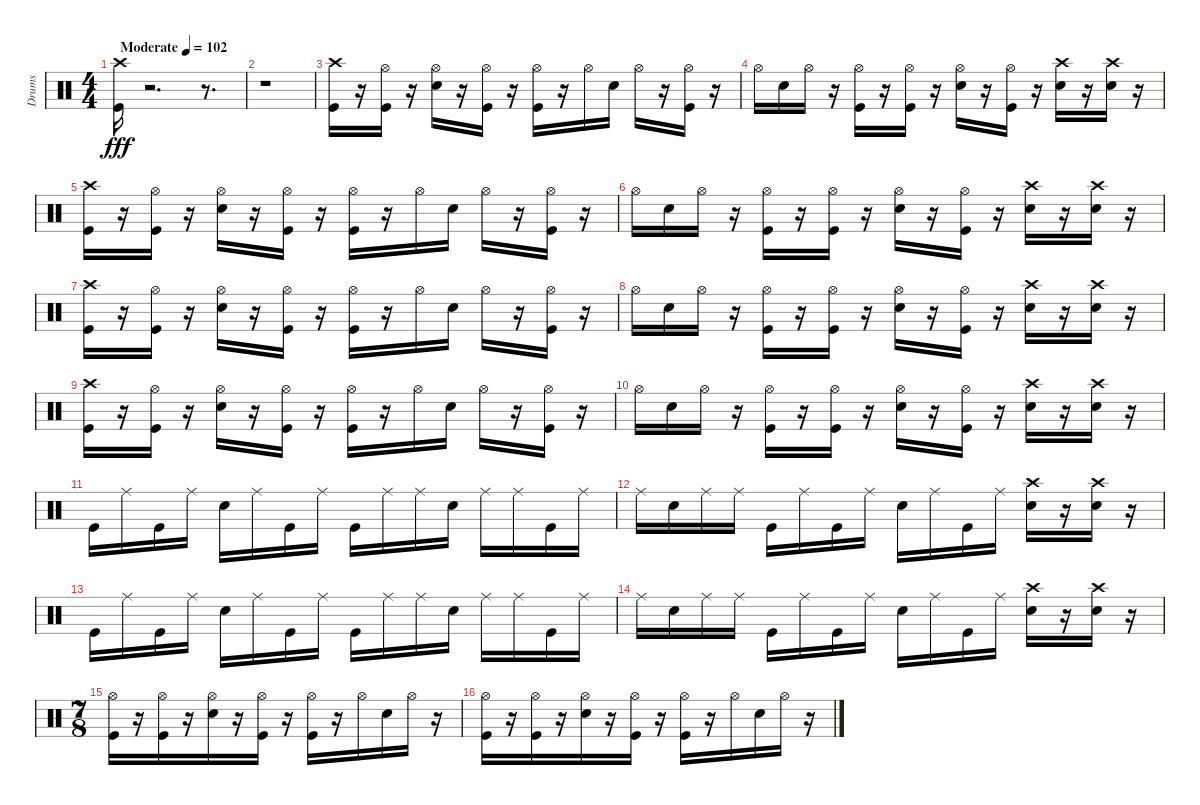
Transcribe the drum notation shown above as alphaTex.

\track ("Drums" "Drums") {instrument percussion}
\staff {score}
\articulation defaults
\ts (4 4)
\tempo (102 "Moderate")
\clef neutral
\ks c
("Crash high (hit)" "Kick (hit)").16{dy fff} r.2{d} r.8{d} |
r.1 |
("Crash high (hit)" "Kick (hit)").16 r.16 ("Kick (hit)" "Hi-Hat (open)").16 r.16 ("Snare (hit) 2" "Hi-Hat (open)").16 r.16 ("Kick (hit)" "Hi-Hat (open)").16 r.16 ("Kick (hit)" "Hi-Hat (open)").16 r.16 "Hi-Hat (open)".16 "Snare (hit) 2".16 "Hi-Hat (open)".16 r.16 ("Kick (hit)" "Hi-Hat (open)").16 r.16 |
"Hi-Hat (open)".16 "Snare (hit) 2".16 "Hi-Hat (open)".16 r.16 ("Kick (hit)" "Hi-Hat (open)").16 r.16 ("Kick (hit)" "Hi-Hat (open)").16 r.16 ("Snare (hit) 2" "Hi-Hat (open)").16 r.16 ("Kick (hit)" "Hi-Hat (open)").16 r.16 ("Snare (hit) 2" "Crash high (hit)").16 r.16 ("Snare (hit) 2" "Crash high (hit)").16 r.16 |
("Kick (hit)" "Crash high (hit)").16 r.16 ("Hi-Hat (open)" "Kick (hit)").16 r.16 ("Hi-Hat (open)" "Snare (hit) 2").16 r.16 ("Hi-Hat (open)" "Kick (hit)").16 r.16 ("Hi-Hat (open)" "Kick (hit)").16 r.16 "Hi-Hat (open)".16 "Snare (hit) 2".16 "Hi-Hat (open)".16 r.16 ("Hi-Hat (open)" "Kick (hit)").16 r.16 |
"Hi-Hat (open)".16 "Snare (hit) 2".16 "Hi-Hat (open)".16 r.16 ("Hi-Hat (open)" "Kick (hit)").16 r.16 ("Hi-Hat (open)" "Kick (hit)").16 r.16 ("Hi-Hat (open)" "Snare (hit) 2").16 r.16 ("Hi-Hat (open)" "Kick (hit)").16 r.16 ("Crash high (hit)" "Snare (hit) 2").16 r.16 ("Crash high (hit)" "Snare (hit) 2").16 r.16 |
("Kick (hit)" "Crash high (hit)").16 r.16 ("Hi-Hat (open)" "Kick (hit)").16 r.16 ("Hi-Hat (open)" "Snare (hit) 2").16 r.16 ("Hi-Hat (open)" "Kick (hit)").16 r.16 ("Hi-Hat (open)" "Kick (hit)").16 r.16 "Hi-Hat (open)".16 "Snare (hit) 2".16 "Hi-Hat (open)".16 r.16 ("Hi-Hat (open)" "Kick (hit)").16 r.16 |
"Hi-Hat (open)".16 "Snare (hit) 2".16 "Hi-Hat (open)".16 r.16 ("Hi-Hat (open)" "Kick (hit)").16 r.16 ("Hi-Hat (open)" "Kick (hit)").16 r.16 ("Hi-Hat (open)" "Snare (hit) 2").16 r.16 ("Hi-Hat (open)" "Kick (hit)").16 r.16 ("Crash high (hit)" "Snare (hit) 2").16 r.16 ("Crash high (hit)" "Snare (hit) 2").16 r.16 |
("Crash high (hit)" "Kick (hit)").16 r.16 ("Kick (hit)" "Hi-Hat (open)").16 r.16 ("Snare (hit) 2" "Hi-Hat (open)").16 r.16 ("Kick (hit)" "Hi-Hat (open)").16 r.16 ("Kick (hit)" "Hi-Hat (open)").16 r.16 "Hi-Hat (open)".16 "Snare (hit) 2".16 "Hi-Hat (open)".16 r.16 ("Kick (hit)" "Hi-Hat (open)").16 r.16 |
"Hi-Hat (open)".16 "Snare (hit) 2".16 "Hi-Hat (open)".16 r.16 ("Kick (hit)" "Hi-Hat (open)").16 r.16 ("Kick (hit)" "Hi-Hat (open)").16 r.16 ("Snare (hit) 2" "Hi-Hat (open)").16 r.16 ("Kick (hit)" "Hi-Hat (open)").16 r.16 ("Snare (hit) 2" "Crash high (hit)").16 r.16 ("Snare (hit) 2" "Crash high (hit)").16 r.16 |
"Kick (hit)".16 "Ride (middle)".16 "Kick (hit)".16 "Ride (middle)".16 "Snare (hit) 2".16 "Ride (middle)".16 "Kick (hit)".16 "Ride (middle)".16 "Kick (hit)".16 "Ride (middle)".16 "Ride (middle)".16 "Snare (hit) 2".16 "Ride (middle)".16 "Ride (middle)".16 "Kick (hit)".16 "Ride (middle)".16 |
"Ride (middle)".16 "Snare (hit) 2".16 "Ride (middle)".16 "Ride (middle)".16 "Kick (hit)".16 "Ride (middle)".16 "Kick (hit)".16 "Ride (middle)".16 "Snare (hit) 2".16 "Ride (middle)".16 "Kick (hit)".16 "Ride (middle)".16 ("Crash high (hit)" "Snare (hit) 2").16 r.16 ("Crash high (hit)" "Snare (hit) 2").16 r.16 |
"Kick (hit)".16 "Ride (middle)".16 "Kick (hit)".16 "Ride (middle)".16 "Snare (hit) 2".16 "Ride (middle)".16 "Kick (hit)".16 "Ride (middle)".16 "Kick (hit)".16 "Ride (middle)".16 "Ride (middle)".16 "Snare (hit) 2".16 "Ride (middle)".16 "Ride (middle)".16 "Kick (hit)".16 "Ride (middle)".16 |
"Ride (middle)".16 "Snare (hit) 2".16 "Ride (middle)".16 "Ride (middle)".16 "Kick (hit)".16 "Ride (middle)".16 "Kick (hit)".16 "Ride (middle)".16 "Snare (hit) 2".16 "Ride (middle)".16 "Kick (hit)".16 "Ride (middle)".16 ("Snare (hit) 2" "Crash high (hit)").16 r.16 ("Snare (hit) 2" "Crash high (hit)").16 r.16 |
\ts (7 8)
("Hi-Hat (open)" "Kick (hit)").16 r.16 ("Hi-Hat (open)" "Kick (hit)").16 r.16 ("Hi-Hat (open)" "Snare (hit) 2").16 r.16 ("Hi-Hat (open)" "Kick (hit)").16 r.16 ("Hi-Hat (open)" "Kick (hit)").16 r.16 "Hi-Hat (open)".16 "Snare (hit) 2".16 "Hi-Hat (open)".16 r.16 |
("Kick (hit)" "Hi-Hat (open)").16 r.16 ("Kick (hit)" "Hi-Hat (open)").16 r.16 ("Snare (hit) 2" "Hi-Hat (open)").16 r.16 ("Kick (hit)" "Hi-Hat (open)").16 r.16 ("Kick (hit)" "Hi-Hat (open)").16 r.16 "Hi-Hat (open)".16 "Snare (hit) 2".16 "Hi-Hat (open)".16 r.16
